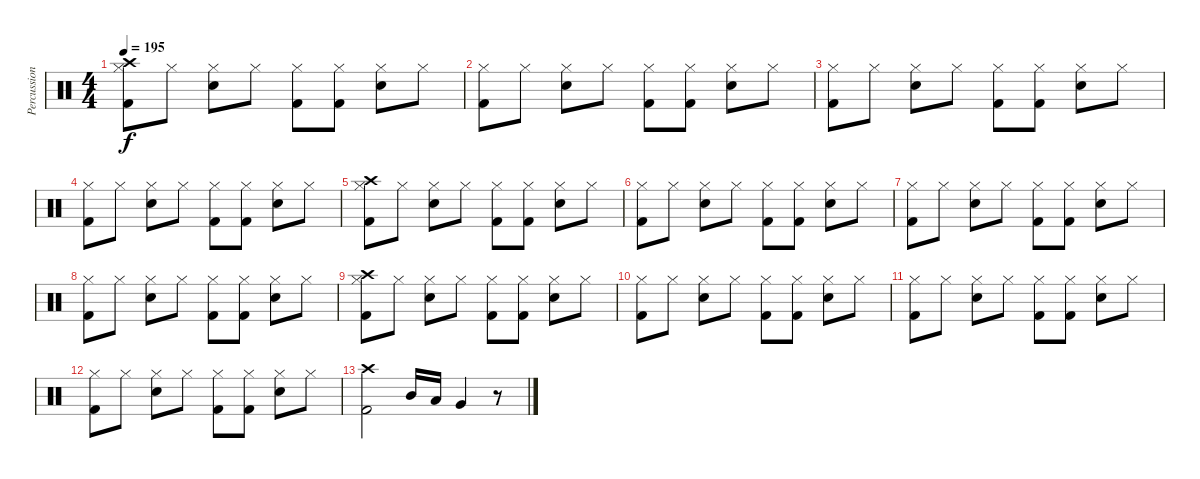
\track ("Percussion" "Percussion") {instrument percussion}
\staff {score}
\articulation defaults
\ts (4 4)
\tempo 195
\clef neutral
\ks c
("Crash high (hit)" "Hi-Hat (closed)" "Kick (hit) 2").8{dy f} "Hi-Hat (closed)".8 ("Hi-Hat (closed)" "Electric Snare (hit)").8 "Hi-Hat (closed)".8 ("Hi-Hat (closed)" "Kick (hit) 2").8 ("Hi-Hat (closed)" "Kick (hit) 2").8 ("Hi-Hat (closed)" "Electric Snare (hit)").8 "Hi-Hat (closed)".8 |
("Hi-Hat (closed)" "Kick (hit) 2").8 "Hi-Hat (closed)".8 ("Hi-Hat (closed)" "Electric Snare (hit)").8 "Hi-Hat (closed)".8 ("Hi-Hat (closed)" "Kick (hit) 2").8 ("Hi-Hat (closed)" "Kick (hit) 2").8 ("Hi-Hat (closed)" "Electric Snare (hit)").8 "Hi-Hat (closed)".8 |
("Hi-Hat (closed)" "Kick (hit) 2").8 "Hi-Hat (closed)".8 ("Hi-Hat (closed)" "Electric Snare (hit)").8 "Hi-Hat (closed)".8 ("Hi-Hat (closed)" "Kick (hit) 2").8 ("Hi-Hat (closed)" "Kick (hit) 2").8 ("Hi-Hat (closed)" "Electric Snare (hit)").8 "Hi-Hat (closed)".8 |
("Hi-Hat (closed)" "Kick (hit) 2").8 "Hi-Hat (closed)".8 ("Hi-Hat (closed)" "Electric Snare (hit)").8 "Hi-Hat (closed)".8 ("Hi-Hat (closed)" "Kick (hit) 2").8 ("Hi-Hat (closed)" "Kick (hit) 2").8 ("Hi-Hat (closed)" "Electric Snare (hit)").8 "Hi-Hat (closed)".8 |
("Crash high (hit)" "Hi-Hat (closed)" "Kick (hit) 2").8 "Hi-Hat (closed)".8 ("Hi-Hat (closed)" "Electric Snare (hit)").8 "Hi-Hat (closed)".8 ("Hi-Hat (closed)" "Kick (hit) 2").8 ("Hi-Hat (closed)" "Kick (hit) 2").8 ("Hi-Hat (closed)" "Electric Snare (hit)").8 "Hi-Hat (closed)".8 |
("Hi-Hat (closed)" "Kick (hit) 2").8 "Hi-Hat (closed)".8 ("Hi-Hat (closed)" "Electric Snare (hit)").8 "Hi-Hat (closed)".8 ("Hi-Hat (closed)" "Kick (hit) 2").8 ("Hi-Hat (closed)" "Kick (hit) 2").8 ("Hi-Hat (closed)" "Electric Snare (hit)").8 "Hi-Hat (closed)".8 |
("Hi-Hat (closed)" "Kick (hit) 2").8 "Hi-Hat (closed)".8 ("Hi-Hat (closed)" "Electric Snare (hit)").8 "Hi-Hat (closed)".8 ("Hi-Hat (closed)" "Kick (hit) 2").8 ("Hi-Hat (closed)" "Kick (hit) 2").8 ("Hi-Hat (closed)" "Electric Snare (hit)").8 "Hi-Hat (closed)".8 |
("Hi-Hat (closed)" "Kick (hit) 2").8 "Hi-Hat (closed)".8 ("Hi-Hat (closed)" "Electric Snare (hit)").8 "Hi-Hat (closed)".8 ("Hi-Hat (closed)" "Kick (hit) 2").8 ("Hi-Hat (closed)" "Kick (hit) 2").8 ("Hi-Hat (closed)" "Electric Snare (hit)").8 "Hi-Hat (closed)".8 |
("Crash high (hit)" "Hi-Hat (closed)" "Kick (hit) 2").8 "Hi-Hat (closed)".8 ("Hi-Hat (closed)" "Electric Snare (hit)").8 "Hi-Hat (closed)".8 ("Hi-Hat (closed)" "Kick (hit) 2").8 ("Hi-Hat (closed)" "Kick (hit) 2").8 ("Hi-Hat (closed)" "Electric Snare (hit)").8 "Hi-Hat (closed)".8 |
("Hi-Hat (closed)" "Kick (hit) 2").8 "Hi-Hat (closed)".8 ("Hi-Hat (closed)" "Electric Snare (hit)").8 "Hi-Hat (closed)".8 ("Hi-Hat (closed)" "Kick (hit) 2").8 ("Hi-Hat (closed)" "Kick (hit) 2").8 ("Hi-Hat (closed)" "Electric Snare (hit)").8 "Hi-Hat (closed)".8 |
("Hi-Hat (closed)" "Kick (hit) 2").8 "Hi-Hat (closed)".8 ("Hi-Hat (closed)" "Electric Snare (hit)").8 "Hi-Hat (closed)".8 ("Hi-Hat (closed)" "Kick (hit) 2").8 ("Hi-Hat (closed)" "Kick (hit) 2").8 ("Hi-Hat (closed)" "Electric Snare (hit)").8 "Hi-Hat (closed)".8 |
("Hi-Hat (closed)" "Kick (hit) 2").8 "Hi-Hat (closed)".8 ("Hi-Hat (closed)" "Electric Snare (hit)").8 "Hi-Hat (closed)".8 ("Hi-Hat (closed)" "Kick (hit) 2").8 ("Hi-Hat (closed)" "Kick (hit) 2").8 ("Hi-Hat (closed)" "Electric Snare (hit)").8 "Hi-Hat (closed)".8 |
("Crash high (hit)" "Kick (hit) 2").2 "Mid Tom (hit)".16 "Low Tom (hit)".16 "Very Low Tom (hit)".4 r.8
